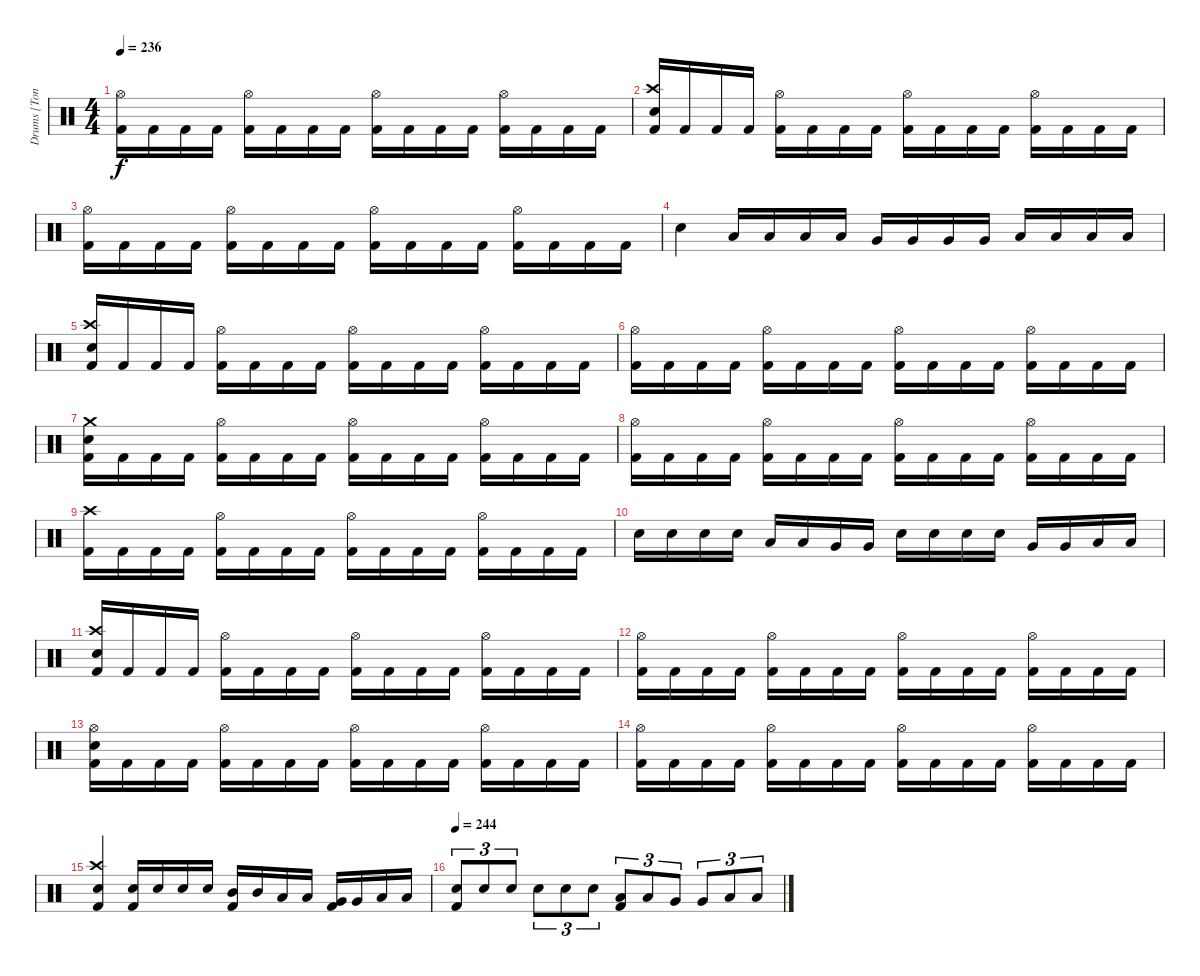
\track ("Drums [Tony Laureano]" "Drums [Ton") {instrument percussion}
\staff {score}
\articulation defaults
\ts (4 4)
\tempo 236
\clef neutral
\ks c
("Hi-Hat (open)" "Kick (hit) 2").16{dy f} "Kick (hit) 2".16 "Kick (hit) 2".16 "Kick (hit) 2".16 ("Hi-Hat (open)" "Kick (hit) 2").16 "Kick (hit) 2".16 "Kick (hit) 2".16 "Kick (hit) 2".16 ("Hi-Hat (open)" "Kick (hit) 2").16 "Kick (hit) 2".16 "Kick (hit) 2".16 "Kick (hit) 2".16 ("Hi-Hat (open)" "Kick (hit) 2").16 "Kick (hit) 2".16 "Kick (hit) 2".16 "Kick (hit) 2".16 |
("Crash high (hit)" "Electric Snare (hit)" "Kick (hit) 2").16 "Kick (hit) 2".16 "Kick (hit) 2".16 "Kick (hit) 2".16 ("Hi-Hat (open)" "Kick (hit) 2").16 "Kick (hit) 2".16 "Kick (hit) 2".16 "Kick (hit) 2".16 ("Hi-Hat (open)" "Kick (hit) 2").16 "Kick (hit) 2".16 "Kick (hit) 2".16 "Kick (hit) 2".16 ("Hi-Hat (open)" "Kick (hit) 2").16 "Kick (hit) 2".16 "Kick (hit) 2".16 "Kick (hit) 2".16 |
("Hi-Hat (open)" "Kick (hit) 2").16 "Kick (hit) 2".16 "Kick (hit) 2".16 "Kick (hit) 2".16 ("Hi-Hat (open)" "Kick (hit) 2").16 "Kick (hit) 2".16 "Kick (hit) 2".16 "Kick (hit) 2".16 ("Hi-Hat (open)" "Kick (hit) 2").16 "Kick (hit) 2".16 "Kick (hit) 2".16 "Kick (hit) 2".16 ("Hi-Hat (open)" "Kick (hit) 2").16 "Kick (hit) 2".16 "Kick (hit) 2".16 "Kick (hit) 2".16 |
"Electric Snare (hit)".4 "Low Tom (hit)".16 "Low Tom (hit)".16 "Low Tom (hit)".16 "Low Tom (hit)".16 "Very Low Tom (hit)".16 "Very Low Tom (hit)".16 "Very Low Tom (hit)".16 "Very Low Tom (hit)".16 "Low Floor Tom (hit)".16 "Low Floor Tom (hit)".16 "Low Floor Tom (hit)".16 "Low Floor Tom (hit)".16 |
("Crash high (hit)" "Electric Snare (hit)" "Kick (hit) 2").16 "Kick (hit) 2".16 "Kick (hit) 2".16 "Kick (hit) 2".16 ("Hi-Hat (open)" "Kick (hit) 2").16 "Kick (hit) 2".16 "Kick (hit) 2".16 "Kick (hit) 2".16 ("Hi-Hat (open)" "Kick (hit) 2").16 "Kick (hit) 2".16 "Kick (hit) 2".16 "Kick (hit) 2".16 ("Hi-Hat (open)" "Kick (hit) 2").16 "Kick (hit) 2".16 "Kick (hit) 2".16 "Kick (hit) 2".16 |
("Hi-Hat (open)" "Kick (hit) 2").16 "Kick (hit) 2".16 "Kick (hit) 2".16 "Kick (hit) 2".16 ("Hi-Hat (open)" "Kick (hit) 2").16 "Kick (hit) 2".16 "Kick (hit) 2".16 "Kick (hit) 2".16 ("Hi-Hat (open)" "Kick (hit) 2").16 "Kick (hit) 2".16 "Kick (hit) 2".16 "Kick (hit) 2".16 ("Hi-Hat (open)" "Kick (hit) 2").16 "Kick (hit) 2".16 "Kick (hit) 2".16 "Kick (hit) 2".16 |
("Crash medium (hit)" "Electric Snare (hit)" "Kick (hit) 2").16 "Kick (hit) 2".16 "Kick (hit) 2".16 "Kick (hit) 2".16 ("Hi-Hat (open)" "Kick (hit) 2").16 "Kick (hit) 2".16 "Kick (hit) 2".16 "Kick (hit) 2".16 ("Hi-Hat (open)" "Kick (hit) 2").16 "Kick (hit) 2".16 "Kick (hit) 2".16 "Kick (hit) 2".16 ("Hi-Hat (open)" "Kick (hit) 2").16 "Kick (hit) 2".16 "Kick (hit) 2".16 "Kick (hit) 2".16 |
("Hi-Hat (open)" "Kick (hit) 2").16 "Kick (hit) 2".16 "Kick (hit) 2".16 "Kick (hit) 2".16 ("Hi-Hat (open)" "Kick (hit) 2").16 "Kick (hit) 2".16 "Kick (hit) 2".16 "Kick (hit) 2".16 ("Hi-Hat (open)" "Kick (hit) 2").16 "Kick (hit) 2".16 "Kick (hit) 2".16 "Kick (hit) 2".16 ("Hi-Hat (open)" "Kick (hit) 2").16 "Kick (hit) 2".16 "Kick (hit) 2".16 "Kick (hit) 2".16 |
("Crash high (hit)" "Kick (hit) 2").16 "Kick (hit) 2".16 "Kick (hit) 2".16 "Kick (hit) 2".16 ("Hi-Hat (open)" "Kick (hit) 2").16 "Kick (hit) 2".16 "Kick (hit) 2".16 "Kick (hit) 2".16 ("Hi-Hat (open)" "Kick (hit) 2").16 "Kick (hit) 2".16 "Kick (hit) 2".16 "Kick (hit) 2".16 ("Hi-Hat (open)" "Kick (hit) 2").16 "Kick (hit) 2".16 "Kick (hit) 2".16 "Kick (hit) 2".16 |
"Electric Snare (hit)".16 "Electric Snare (hit)".16 "Electric Snare (hit)".16 "Electric Snare (hit)".16 "Low Tom (hit)".16 "Low Tom (hit)".16 "Very Low Tom (hit)".16 "Very Low Tom (hit)".16 "Electric Snare (hit)".16 "Electric Snare (hit)".16 "Electric Snare (hit)".16 "Electric Snare (hit)".16 "Very Low Tom (hit)".16 "Very Low Tom (hit)".16 "Low Floor Tom (hit)".16 "Low Floor Tom (hit)".16 |
("Crash high (hit)" "Electric Snare (hit)" "Kick (hit) 2").16 "Kick (hit) 2".16 "Kick (hit) 2".16 "Kick (hit) 2".16 ("Hi-Hat (open)" "Kick (hit) 2").16 "Kick (hit) 2".16 "Kick (hit) 2".16 "Kick (hit) 2".16 ("Hi-Hat (open)" "Kick (hit) 2").16 "Kick (hit) 2".16 "Kick (hit) 2".16 "Kick (hit) 2".16 ("Hi-Hat (open)" "Kick (hit) 2").16 "Kick (hit) 2".16 "Kick (hit) 2".16 "Kick (hit) 2".16 |
("Hi-Hat (open)" "Kick (hit) 2").16 "Kick (hit) 2".16 "Kick (hit) 2".16 "Kick (hit) 2".16 ("Hi-Hat (open)" "Kick (hit) 2").16 "Kick (hit) 2".16 "Kick (hit) 2".16 "Kick (hit) 2".16 ("Hi-Hat (open)" "Kick (hit) 2").16 "Kick (hit) 2".16 "Kick (hit) 2".16 "Kick (hit) 2".16 ("Hi-Hat (open)" "Kick (hit) 2").16 "Kick (hit) 2".16 "Kick (hit) 2".16 "Kick (hit) 2".16 |
("Hi-Hat (open)" "Electric Snare (hit)" "Kick (hit) 2").16 "Kick (hit) 2".16 "Kick (hit) 2".16 "Kick (hit) 2".16 ("Hi-Hat (open)" "Kick (hit) 2").16 "Kick (hit) 2".16 "Kick (hit) 2".16 "Kick (hit) 2".16 ("Hi-Hat (open)" "Kick (hit) 2").16 "Kick (hit) 2".16 "Kick (hit) 2".16 "Kick (hit) 2".16 ("Hi-Hat (open)" "Kick (hit) 2").16 "Kick (hit) 2".16 "Kick (hit) 2".16 "Kick (hit) 2".16 |
("Hi-Hat (open)" "Kick (hit) 2").16 "Kick (hit) 2".16 "Kick (hit) 2".16 "Kick (hit) 2".16 ("Hi-Hat (open)" "Kick (hit) 2").16 "Kick (hit) 2".16 "Kick (hit) 2".16 "Kick (hit) 2".16 ("Hi-Hat (open)" "Kick (hit) 2").16 "Kick (hit) 2".16 "Kick (hit) 2".16 "Kick (hit) 2".16 ("Hi-Hat (open)" "Kick (hit) 2").16 "Kick (hit) 2".16 "Kick (hit) 2".16 "Kick (hit) 2".16 |
("Crash high (hit)" "Electric Snare (hit)" "Kick (hit) 2").4 ("Electric Snare (hit)" "Kick (hit) 2").16 "Electric Snare (hit)".16 "Electric Snare (hit)".16 "Electric Snare (hit)".16 ("Mid Tom (hit)" "Kick (hit) 2").16 "Mid Tom (hit)".16 "Low Tom (hit)".16 "Low Tom (hit)".16 ("Very Low Tom (hit)" "Kick (hit) 2").16 "Very Low Tom (hit)".16 "Low Floor Tom (hit)".16 "Low Floor Tom (hit)".16 |
\tempo 244
("Electric Snare (hit)" "Kick (hit) 2").8{tu (3 2)} "Electric Snare (hit)".8{tu (3 2)} "Electric Snare (hit)".8{tu (3 2)} "Electric Snare (hit)".8{tu (3 2)} "Electric Snare (hit)".8{tu (3 2)} "Electric Snare (hit)".8{tu (3 2)} ("Low Tom (hit)" "Kick (hit) 2").8{tu (3 2)} "Low Tom (hit)".8{tu (3 2)} "Very Low Tom (hit)".8{tu (3 2)} "Very Low Tom (hit)".8{tu (3 2)} "Low Floor Tom (hit)".8{tu (3 2)} "Low Floor Tom (hit)".8{tu (3 2)}
